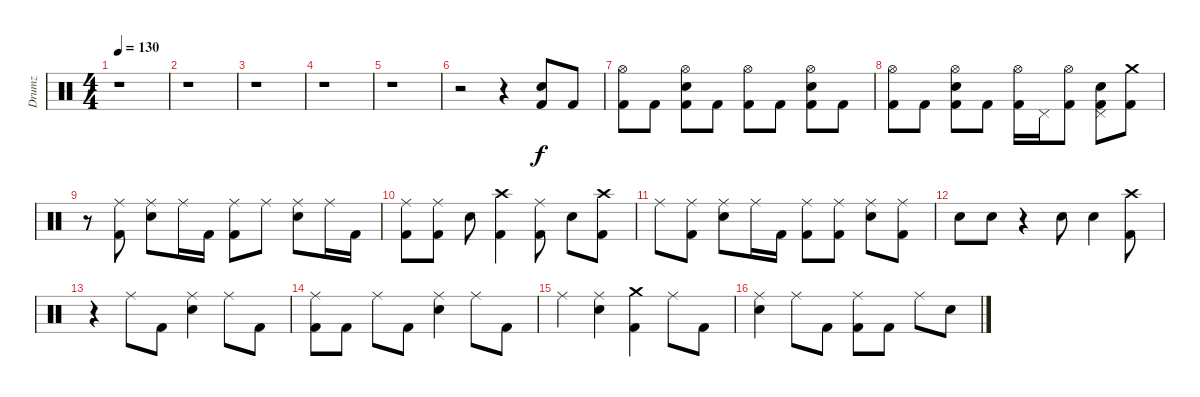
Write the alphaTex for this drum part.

\track ("Drumz" "Drumz") {instrument percussion}
\staff {score}
\articulation defaults
\ts (4 4)
\tempo 130
\clef neutral
\ks c
r.1{dy f volume 0} |
r.1{volume 13} |
r.1 |
r.1 |
r.1 |
r.2 r.4 ("Kick (hit) 2" "Snare (hit) 2").8{volume 4} "Kick (hit) 2".8{volume 5} |
("Kick (hit) 2" "Hi-Hat (open)").8{volume 6} "Kick (hit) 2".8{volume 7} ("Kick (hit) 2" "Snare (hit) 2" "Hi-Hat (open)").8{volume 8} "Kick (hit) 2".8{volume 9} ("Kick (hit) 2" "Hi-Hat (open)").8{volume 10} "Kick (hit) 2".8{volume 10} ("Kick (hit) 2" "Snare (hit) 2" "Hi-Hat (open)").8{volume 11} "Kick (hit) 2".8{volume 11} |
("Kick (hit) 2" "Hi-Hat (open)").8{volume 12} "Kick (hit) 2".8{volume 12} ("Kick (hit) 2" "Snare (hit) 2" "Hi-Hat (open)").8{volume 13} "Kick (hit) 2".8 ("Kick (hit) 2" "Hi-Hat (open)").16 "Pedal Hi-Hat (hit)".16 ("Kick (hit) 2" "Hi-Hat (open)").8 ("Kick (hit) 2" "Snare (hit) 2" "Pedal Hi-Hat (hit)").8 ("Kick (hit) 2" "Crash medium (hit)").8 |
r.8 ("Kick (hit) 2" "Ride (middle)").8 ("Snare (hit) 2" "Ride (middle)").8 "Ride (middle)".16 "Kick (hit) 2".16 ("Kick (hit) 2" "Ride (middle)").8 "Ride (middle)".8 ("Snare (hit) 2" "Ride (middle)").8 "Ride (middle)".16 "Kick (hit) 2".16 |
("Kick (hit) 2" "Ride (middle)").8 ("Kick (hit) 2" "Ride (middle)").8 "Snare (hit) 2".8 ("Kick (hit) 2" "Crash high (hit)").4 ("Kick (hit) 2" "Ride (middle)").8 "Snare (hit) 2".8 ("Kick (hit) 2" "Crash high (hit)").8 |
"Ride (middle)".8 ("Kick (hit) 2" "Ride (middle)").8 ("Snare (hit) 2" "Ride (middle)").8 "Ride (middle)".16 "Kick (hit) 2".16 ("Kick (hit) 2" "Ride (middle)").8 ("Kick (hit) 2" "Ride (middle)").8 ("Snare (hit) 2" "Ride (middle)").8 ("Kick (hit) 2" "Ride (middle)").8 |
"Snare (hit) 2".8 "Snare (hit) 2".8 r.4 "Snare (hit) 2".8 "Snare (hit) 2".4 ("Kick (hit) 2" "Crash high (hit)").8 |
r.4 "Ride (middle)".8 "Kick (hit) 2".8 ("Snare (hit) 2" "Ride (middle)").4 "Ride (middle)".8 "Kick (hit) 2".8 |
("Kick (hit) 2" "Ride (middle)").8 "Kick (hit) 2".8 "Ride (middle)".8 "Kick (hit) 2".8 ("Snare (hit) 2" "Ride (middle)").4 "Ride (middle)".8 "Kick (hit) 2".8 |
"Ride (middle)".4 ("Snare (hit) 2" "Ride (middle)").4 ("Kick (hit) 2" "Crash medium (hit)").4 "Ride (middle)".8 "Kick (hit) 2".8 |
("Snare (hit) 2" "Ride (middle)").4 "Ride (middle)".8 "Kick (hit) 2".8 ("Kick (hit) 2" "Ride (middle)").8 "Kick (hit) 2".8 "Ride (middle)".8 "Snare (hit) 2".8
